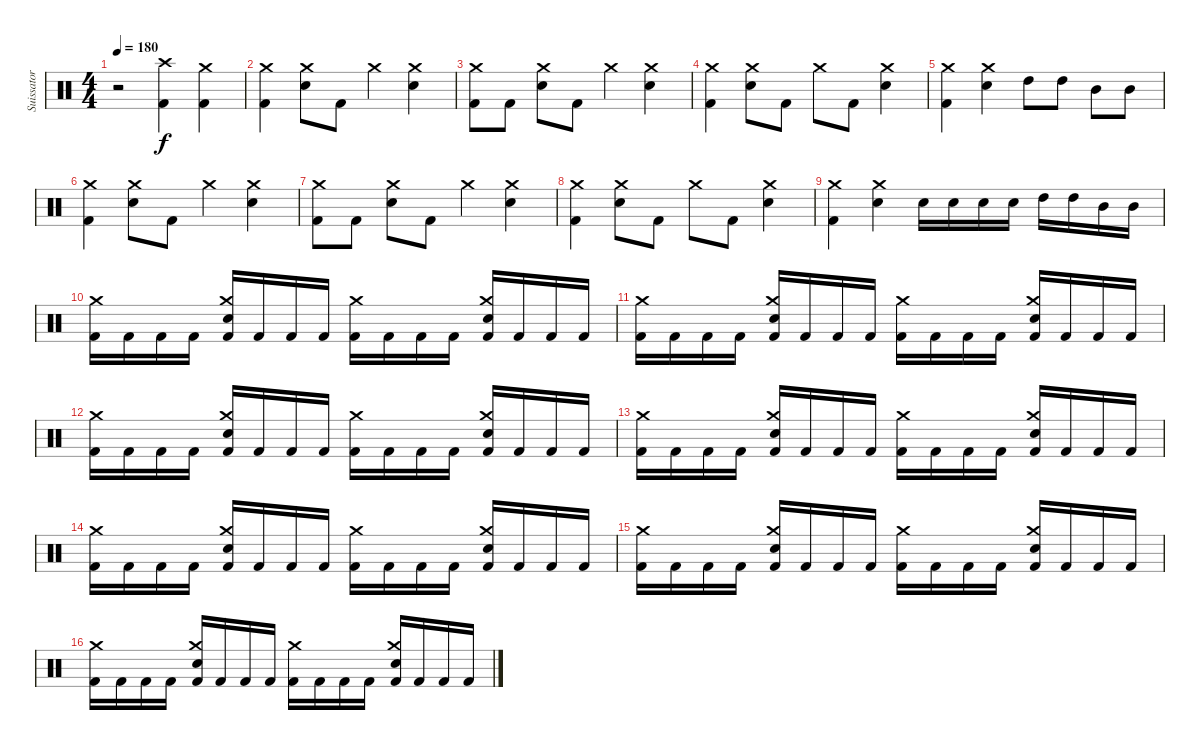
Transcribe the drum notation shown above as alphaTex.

\track ("Suissator" "Suissator") {instrument percussion}
\staff {score}
\articulation defaults
\ts (4 4)
\tempo 180
\clef neutral
\ks c
r.2{dy f} ("Kick (hit) 2" "Crash high (hit)").4 ("Kick (hit) 2" "Crash medium (hit)").4 |
("Kick (hit) 2" "Crash medium (hit)").4 ("Electric Snare (hit)" "Crash medium (hit)").8 "Kick (hit) 2".8 "Crash medium (hit)".4 ("Electric Snare (hit)" "Crash medium (hit)").4 |
("Kick (hit) 2" "Crash medium (hit)").8 "Kick (hit) 2".8 ("Electric Snare (hit)" "Crash medium (hit)").8 "Kick (hit) 2".8 "Crash medium (hit)".4 ("Electric Snare (hit)" "Crash medium (hit)").4 |
("Kick (hit) 2" "Crash medium (hit)").4 ("Electric Snare (hit)" "Crash medium (hit)").8 "Kick (hit) 2".8 "Crash medium (hit)".8 "Kick (hit) 2".8 ("Electric Snare (hit)" "Crash medium (hit)").4 |
("Kick (hit) 2" "Crash medium (hit)").4 ("Electric Snare (hit)" "Crash medium (hit)").4 "High Tom (hit)".8 "High Tom (hit)".8 "Mid Tom (hit)".8 "Mid Tom (hit)".8 |
("Kick (hit) 2" "Crash medium (hit)").4 ("Electric Snare (hit)" "Crash medium (hit)").8 "Kick (hit) 2".8 "Crash medium (hit)".4 ("Electric Snare (hit)" "Crash medium (hit)").4 |
("Kick (hit) 2" "Crash medium (hit)").8 "Kick (hit) 2".8 ("Electric Snare (hit)" "Crash medium (hit)").8 "Kick (hit) 2".8 "Crash medium (hit)".4 ("Electric Snare (hit)" "Crash medium (hit)").4 |
("Kick (hit) 2" "Crash medium (hit)").4 ("Electric Snare (hit)" "Crash medium (hit)").8 "Kick (hit) 2".8 "Crash medium (hit)".8 "Kick (hit) 2".8 ("Electric Snare (hit)" "Crash medium (hit)").4 |
("Kick (hit) 2" "Crash medium (hit)").4 ("Electric Snare (hit)" "Crash medium (hit)").4 "Electric Snare (hit)".16 "Electric Snare (hit)".16 "Electric Snare (hit)".16 "Electric Snare (hit)".16 "High Tom (hit)".16 "High Tom (hit)".16 "Mid Tom (hit)".16 "Mid Tom (hit)".16 |
("Kick (hit) 2" "Crash medium (hit)").16 "Kick (hit) 2".16 "Kick (hit) 2".16 "Kick (hit) 2".16 ("Kick (hit) 2" "Electric Snare (hit)" "Crash medium (hit)").16 "Kick (hit) 2".16 "Kick (hit) 2".16 "Kick (hit) 2".16 ("Kick (hit) 2" "Crash medium (hit)").16 "Kick (hit) 2".16 "Kick (hit) 2".16 "Kick (hit) 2".16 ("Kick (hit) 2" "Electric Snare (hit)" "Crash medium (hit)").16 "Kick (hit) 2".16 "Kick (hit) 2".16 "Kick (hit) 2".16 |
("Kick (hit) 2" "Crash medium (hit)").16 "Kick (hit) 2".16 "Kick (hit) 2".16 "Kick (hit) 2".16 ("Kick (hit) 2" "Electric Snare (hit)" "Crash medium (hit)").16 "Kick (hit) 2".16 "Kick (hit) 2".16 "Kick (hit) 2".16 ("Kick (hit) 2" "Crash medium (hit)").16 "Kick (hit) 2".16 "Kick (hit) 2".16 "Kick (hit) 2".16 ("Kick (hit) 2" "Electric Snare (hit)" "Crash medium (hit)").16 "Kick (hit) 2".16 "Kick (hit) 2".16 "Kick (hit) 2".16 |
("Kick (hit) 2" "Crash medium (hit)").16 "Kick (hit) 2".16 "Kick (hit) 2".16 "Kick (hit) 2".16 ("Kick (hit) 2" "Electric Snare (hit)" "Crash medium (hit)").16 "Kick (hit) 2".16 "Kick (hit) 2".16 "Kick (hit) 2".16 ("Kick (hit) 2" "Crash medium (hit)").16 "Kick (hit) 2".16 "Kick (hit) 2".16 "Kick (hit) 2".16 ("Kick (hit) 2" "Electric Snare (hit)" "Crash medium (hit)").16 "Kick (hit) 2".16 "Kick (hit) 2".16 "Kick (hit) 2".16 |
("Kick (hit) 2" "Crash medium (hit)").16 "Kick (hit) 2".16 "Kick (hit) 2".16 "Kick (hit) 2".16 ("Kick (hit) 2" "Electric Snare (hit)" "Crash medium (hit)").16 "Kick (hit) 2".16 "Kick (hit) 2".16 "Kick (hit) 2".16 ("Kick (hit) 2" "Crash medium (hit)").16 "Kick (hit) 2".16 "Kick (hit) 2".16 "Kick (hit) 2".16 ("Kick (hit) 2" "Electric Snare (hit)" "Crash medium (hit)").16 "Kick (hit) 2".16 "Kick (hit) 2".16 "Kick (hit) 2".16 |
("Kick (hit) 2" "Crash medium (hit)").16 "Kick (hit) 2".16 "Kick (hit) 2".16 "Kick (hit) 2".16 ("Kick (hit) 2" "Electric Snare (hit)" "Crash medium (hit)").16 "Kick (hit) 2".16 "Kick (hit) 2".16 "Kick (hit) 2".16 ("Kick (hit) 2" "Crash medium (hit)").16 "Kick (hit) 2".16 "Kick (hit) 2".16 "Kick (hit) 2".16 ("Kick (hit) 2" "Electric Snare (hit)" "Crash medium (hit)").16 "Kick (hit) 2".16 "Kick (hit) 2".16 "Kick (hit) 2".16 |
("Kick (hit) 2" "Crash medium (hit)").16 "Kick (hit) 2".16 "Kick (hit) 2".16 "Kick (hit) 2".16 ("Kick (hit) 2" "Electric Snare (hit)" "Crash medium (hit)").16 "Kick (hit) 2".16 "Kick (hit) 2".16 "Kick (hit) 2".16 ("Kick (hit) 2" "Crash medium (hit)").16 "Kick (hit) 2".16 "Kick (hit) 2".16 "Kick (hit) 2".16 ("Kick (hit) 2" "Electric Snare (hit)" "Crash medium (hit)").16 "Kick (hit) 2".16 "Kick (hit) 2".16 "Kick (hit) 2".16 |
("Kick (hit) 2" "Crash medium (hit)").16 "Kick (hit) 2".16 "Kick (hit) 2".16 "Kick (hit) 2".16 ("Kick (hit) 2" "Electric Snare (hit)" "Crash medium (hit)").16 "Kick (hit) 2".16 "Kick (hit) 2".16 "Kick (hit) 2".16 ("Kick (hit) 2" "Crash medium (hit)").16 "Kick (hit) 2".16 "Kick (hit) 2".16 "Kick (hit) 2".16 ("Kick (hit) 2" "Electric Snare (hit)" "Crash medium (hit)").16 "Kick (hit) 2".16 "Kick (hit) 2".16 "Kick (hit) 2".16
